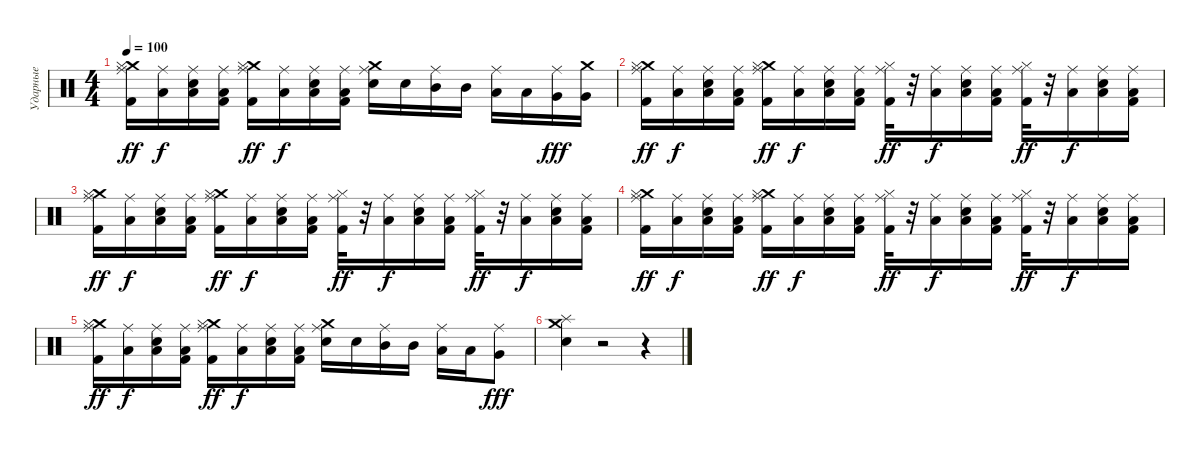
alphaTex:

\track ("Ударные" "Ударные") {instrument percussion}
\staff {score}
\articulation defaults
\ts (4 4)
\tempo 100
\clef neutral
\ks c
("Crash medium (hit)" "Ride (middle)" "Hi-Hat (closed)" "Kick (hit) 2").16{dy ff} ("Ride (middle)" "Low Floor Tom (hit)").16{dy f} ("Ride (middle)" "Low Floor Tom (hit)" "Snare (hit) 2").16 ("Ride (middle)" "Low Floor Tom (hit)" "Kick (hit) 2").16 ("Crash medium (hit)" "Ride (middle)" "Hi-Hat (closed)" "Kick (hit) 2").16{dy ff} ("Ride (middle)" "Low Floor Tom (hit)").16{dy f} ("Ride (middle)" "Low Floor Tom (hit)" "Snare (hit) 2").16 ("Ride (middle)" "Low Floor Tom (hit)" "Kick (hit) 2").16 ("Ride (middle)" "Crash medium (hit)" "Snare (hit) 2").16 "Snare (hit) 2".16 ("Ride (middle)" "Mid Tom (hit)").16 "Mid Tom (hit)".16 ("Ride (middle)" "Low Tom (hit)").16 "Low Tom (hit)".16 ("Ride (middle)" "Very Low Tom (hit)").16{dy fff} ("Crash medium (hit)" "Very Low Tom (hit)").16 |
("Crash medium (hit)" "Ride (middle)" "Hi-Hat (closed)" "Kick (hit) 2").16{dy ff} ("Ride (middle)" "Low Floor Tom (hit)").16{dy f} ("Ride (middle)" "Low Floor Tom (hit)" "Snare (hit) 2").16 ("Ride (middle)" "Low Floor Tom (hit)" "Kick (hit) 2").16 ("Crash medium (hit)" "Ride (middle)" "Hi-Hat (closed)" "Kick (hit) 2").16{dy ff} ("Ride (middle)" "Low Floor Tom (hit)").16{dy f} ("Ride (middle)" "Low Floor Tom (hit)" "Snare (hit) 2").16 ("Ride (middle)" "Low Floor Tom (hit)" "Kick (hit) 2").16 ("Ride (middle)" "Hi-Hat (closed)" "Kick (hit) 2").32{dy ff} r.32 ("Ride (middle)" "Low Floor Tom (hit)").16{dy f} ("Ride (middle)" "Low Floor Tom (hit)" "Snare (hit) 2").16 ("Ride (middle)" "Low Floor Tom (hit)" "Kick (hit) 2").16 ("Ride (middle)" "Hi-Hat (closed)" "Kick (hit) 2").32{dy ff} r.32 ("Ride (middle)" "Low Floor Tom (hit)").16{dy f} ("Ride (middle)" "Low Floor Tom (hit)" "Snare (hit) 2").16 ("Ride (middle)" "Low Floor Tom (hit)" "Kick (hit) 2").16 |
("Crash medium (hit)" "Ride (middle)" "Hi-Hat (closed)" "Kick (hit) 2").16{dy ff} ("Ride (middle)" "Low Floor Tom (hit)").16{dy f} ("Ride (middle)" "Low Floor Tom (hit)" "Snare (hit) 2").16 ("Ride (middle)" "Low Floor Tom (hit)" "Kick (hit) 2").16 ("Crash medium (hit)" "Ride (middle)" "Hi-Hat (closed)" "Kick (hit) 2").16{dy ff} ("Ride (middle)" "Low Floor Tom (hit)").16{dy f} ("Ride (middle)" "Low Floor Tom (hit)" "Snare (hit) 2").16 ("Ride (middle)" "Low Floor Tom (hit)" "Kick (hit) 2").16 ("Ride (middle)" "Hi-Hat (closed)" "Kick (hit) 2").32{dy ff} r.32 ("Ride (middle)" "Low Floor Tom (hit)").16{dy f} ("Ride (middle)" "Low Floor Tom (hit)" "Snare (hit) 2").16 ("Ride (middle)" "Low Floor Tom (hit)" "Kick (hit) 2").16 ("Ride (middle)" "Hi-Hat (closed)" "Kick (hit) 2").32{dy ff} r.32 ("Ride (middle)" "Low Floor Tom (hit)").16{dy f} ("Ride (middle)" "Low Floor Tom (hit)" "Snare (hit) 2").16 ("Ride (middle)" "Low Floor Tom (hit)" "Kick (hit) 2").16 |
("Crash medium (hit)" "Ride (middle)" "Hi-Hat (closed)" "Kick (hit) 2").16{dy ff} ("Ride (middle)" "Low Floor Tom (hit)").16{dy f} ("Ride (middle)" "Low Floor Tom (hit)" "Snare (hit) 2").16 ("Ride (middle)" "Low Floor Tom (hit)" "Kick (hit) 2").16 ("Crash medium (hit)" "Ride (middle)" "Hi-Hat (closed)" "Kick (hit) 2").16{dy ff} ("Ride (middle)" "Low Floor Tom (hit)").16{dy f} ("Ride (middle)" "Low Floor Tom (hit)" "Snare (hit) 2").16 ("Ride (middle)" "Low Floor Tom (hit)" "Kick (hit) 2").16 ("Ride (middle)" "Hi-Hat (closed)" "Kick (hit) 2").32{dy ff} r.32 ("Ride (middle)" "Low Floor Tom (hit)").16{dy f} ("Ride (middle)" "Low Floor Tom (hit)" "Snare (hit) 2").16 ("Ride (middle)" "Low Floor Tom (hit)" "Kick (hit) 2").16 ("Ride (middle)" "Hi-Hat (closed)" "Kick (hit) 2").32{dy ff} r.32 ("Ride (middle)" "Low Floor Tom (hit)").16{dy f} ("Ride (middle)" "Low Floor Tom (hit)" "Snare (hit) 2").16 ("Ride (middle)" "Low Floor Tom (hit)" "Kick (hit) 2").16 |
("Crash medium (hit)" "Ride (middle)" "Hi-Hat (closed)" "Kick (hit) 2").16{dy ff} ("Ride (middle)" "Low Floor Tom (hit)").16{dy f} ("Ride (middle)" "Low Floor Tom (hit)" "Snare (hit) 2").16 ("Ride (middle)" "Low Floor Tom (hit)" "Kick (hit) 2").16 ("Crash medium (hit)" "Ride (middle)" "Hi-Hat (closed)" "Kick (hit) 2").16{dy ff} ("Ride (middle)" "Low Floor Tom (hit)").16{dy f} ("Ride (middle)" "Low Floor Tom (hit)" "Snare (hit) 2").16 ("Ride (middle)" "Low Floor Tom (hit)" "Kick (hit) 2").16 ("Ride (middle)" "Crash medium (hit)" "Snare (hit) 2").16 "Snare (hit) 2".16 ("Ride (middle)" "Mid Tom (hit)").16 "Mid Tom (hit)".16 ("Ride (middle)" "Low Tom (hit)").16 "Low Tom (hit)".16 ("Ride (middle)" "Very Low Tom (hit)").8{dy fff} |
("Snare (hit) 2" "Crash medium (hit)" "Splash (hit)").4 r.2 r.4
